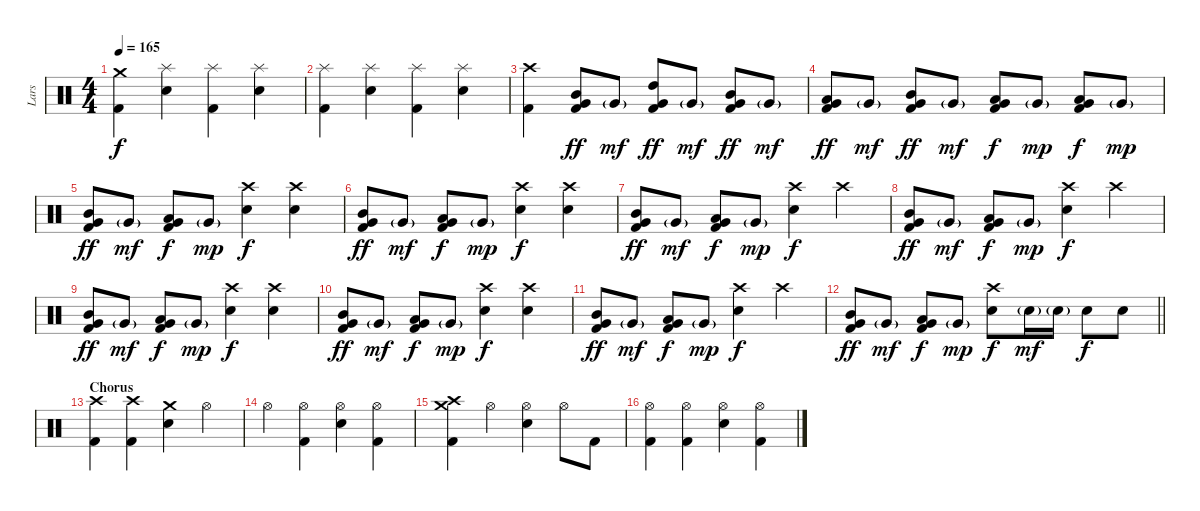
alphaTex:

\track ("Lars" "Lars") {instrument percussion}
\staff {score}
\articulation defaults
\ts (4 4)
\tempo 165
\clef neutral
\ks c
("Crash medium (hit)" "Kick (hit) 2").4{dy f} ("Splash (hit)" "Snare (hit) 2").4 ("Splash (hit)" "Kick (hit) 2").4 ("Splash (hit)" "Snare (hit) 2").4 |
("Splash (hit)" "Kick (hit) 2").4 ("Splash (hit)" "Snare (hit) 2").4 ("Splash (hit)" "Kick (hit) 2").4 ("Splash (hit)" "Snare (hit) 2").4 |
("Crash high (hit)" "Kick (hit) 2").4 ("Mid Tom (hit)" "Very Low Tom (hit)" "Kick (hit) 2").8{dy ff} "Very Low Tom (hit)"{g}.8{dy mf} ("High Tom (hit)" "Very Low Tom (hit)" "Kick (hit) 2").8{dy ff} "Very Low Tom (hit)"{g}.8{dy mf} ("Mid Tom (hit)" "Very Low Tom (hit)" "Kick (hit) 2").8{dy ff} "Very Low Tom (hit)"{g}.8{dy mf} |
("Low Tom (hit)" "Very Low Tom (hit)" "Kick (hit) 2").8{dy ff} "Very Low Tom (hit)"{g}.8{dy mf} ("Mid Tom (hit)" "Very Low Tom (hit)" "Kick (hit) 2").8{dy ff} "Very Low Tom (hit)"{g}.8{dy mf} ("Low Tom (hit)" "Very Low Tom (hit)" "Kick (hit) 2").8{dy f} "Very Low Tom (hit)"{g}.8{dy mp} ("Low Tom (hit)" "Very Low Tom (hit)" "Kick (hit) 2").8{dy f} "Very Low Tom (hit)"{g}.8{dy mp} |
("Mid Tom (hit)" "Very Low Tom (hit)" "Kick (hit) 2").8{dy ff} "Very Low Tom (hit)"{g}.8{dy mf} ("Low Tom (hit)" "Very Low Tom (hit)" "Kick (hit) 2").8{dy f} "Very Low Tom (hit)"{g}.8{dy mp} ("Crash high (hit)" "Snare (hit) 2").4{dy f} ("Crash high (hit)" "Snare (hit) 2").4 |
("Mid Tom (hit)" "Very Low Tom (hit)" "Kick (hit) 2").8{dy ff} "Very Low Tom (hit)"{g}.8{dy mf} ("Low Tom (hit)" "Very Low Tom (hit)" "Kick (hit) 2").8{dy f} "Very Low Tom (hit)"{g}.8{dy mp} ("Crash high (hit)" "Snare (hit) 2").4{dy f} ("Crash high (hit)" "Snare (hit) 2").4 |
("Mid Tom (hit)" "Very Low Tom (hit)" "Kick (hit) 2").8{dy ff} "Very Low Tom (hit)"{g}.8{dy mf} ("Low Tom (hit)" "Very Low Tom (hit)" "Kick (hit) 2").8{dy f} "Very Low Tom (hit)"{g}.8{dy mp} ("Crash high (hit)" "Snare (hit) 2").4{dy f} "Crash high (hit)".4 |
("Mid Tom (hit)" "Very Low Tom (hit)" "Kick (hit) 2").8{dy ff} "Very Low Tom (hit)"{g}.8{dy mf} ("Low Tom (hit)" "Very Low Tom (hit)" "Kick (hit) 2").8{dy f} "Very Low Tom (hit)"{g}.8{dy mp} ("Crash high (hit)" "Snare (hit) 2").4{dy f} "Crash high (hit)".4 |
("Mid Tom (hit)" "Very Low Tom (hit)" "Kick (hit) 2").8{dy ff} "Very Low Tom (hit)"{g}.8{dy mf} ("Low Tom (hit)" "Very Low Tom (hit)" "Kick (hit) 2").8{dy f} "Very Low Tom (hit)"{g}.8{dy mp} ("Crash high (hit)" "Snare (hit) 2").4{dy f} ("Crash high (hit)" "Snare (hit) 2").4 |
("Mid Tom (hit)" "Very Low Tom (hit)" "Kick (hit) 2").8{dy ff} "Very Low Tom (hit)"{g}.8{dy mf} ("Low Tom (hit)" "Very Low Tom (hit)" "Kick (hit) 2").8{dy f} "Very Low Tom (hit)"{g}.8{dy mp} ("Crash high (hit)" "Snare (hit) 2").4{dy f} ("Crash high (hit)" "Snare (hit) 2").4 |
("Mid Tom (hit)" "Very Low Tom (hit)" "Kick (hit) 2").8{dy ff} "Very Low Tom (hit)"{g}.8{dy mf} ("Low Tom (hit)" "Very Low Tom (hit)" "Kick (hit) 2").8{dy f} "Very Low Tom (hit)"{g}.8{dy mp} ("Crash high (hit)" "Snare (hit) 2").4{dy f} "Crash high (hit)".4 |
\barLineRight lightlight
("Mid Tom (hit)" "Very Low Tom (hit)" "Kick (hit) 2").8{dy ff} "Very Low Tom (hit)"{g}.8{dy mf} ("Low Tom (hit)" "Very Low Tom (hit)" "Kick (hit) 2").8{dy f} "Very Low Tom (hit)"{g}.8{dy mp} ("Crash high (hit)" "Snare (hit) 2").8{dy f} "Snare (hit) 2"{g}.16{dy mf} "Snare (hit) 2"{g}.16 "Snare (hit) 2".8{dy f} "Snare (hit) 2".8 |
\section ("" "Chorus")
("Crash high (hit)" "Kick (hit) 2").4 ("Crash high (hit)" "Kick (hit) 2").4 ("Crash medium (hit)" "Snare (hit) 2").4 "Hi-Hat (open)".4 |
"Hi-Hat (open)".4 ("Hi-Hat (open)" "Kick (hit) 2").4 ("Hi-Hat (open)" "Snare (hit) 2").4 ("Hi-Hat (open)" "Kick (hit) 2").4 |
("Crash high (hit)" "Crash medium (hit)" "Kick (hit) 2").4 "Hi-Hat (open)".4 ("Hi-Hat (open)" "Snare (hit) 2").4 "Hi-Hat (open)".8 "Kick (hit) 2".8 |
("Hi-Hat (open)" "Kick (hit) 2").4 ("Hi-Hat (open)" "Kick (hit) 2").4 ("Hi-Hat (open)" "Snare (hit) 2").4 ("Hi-Hat (open)" "Kick (hit) 2").4
